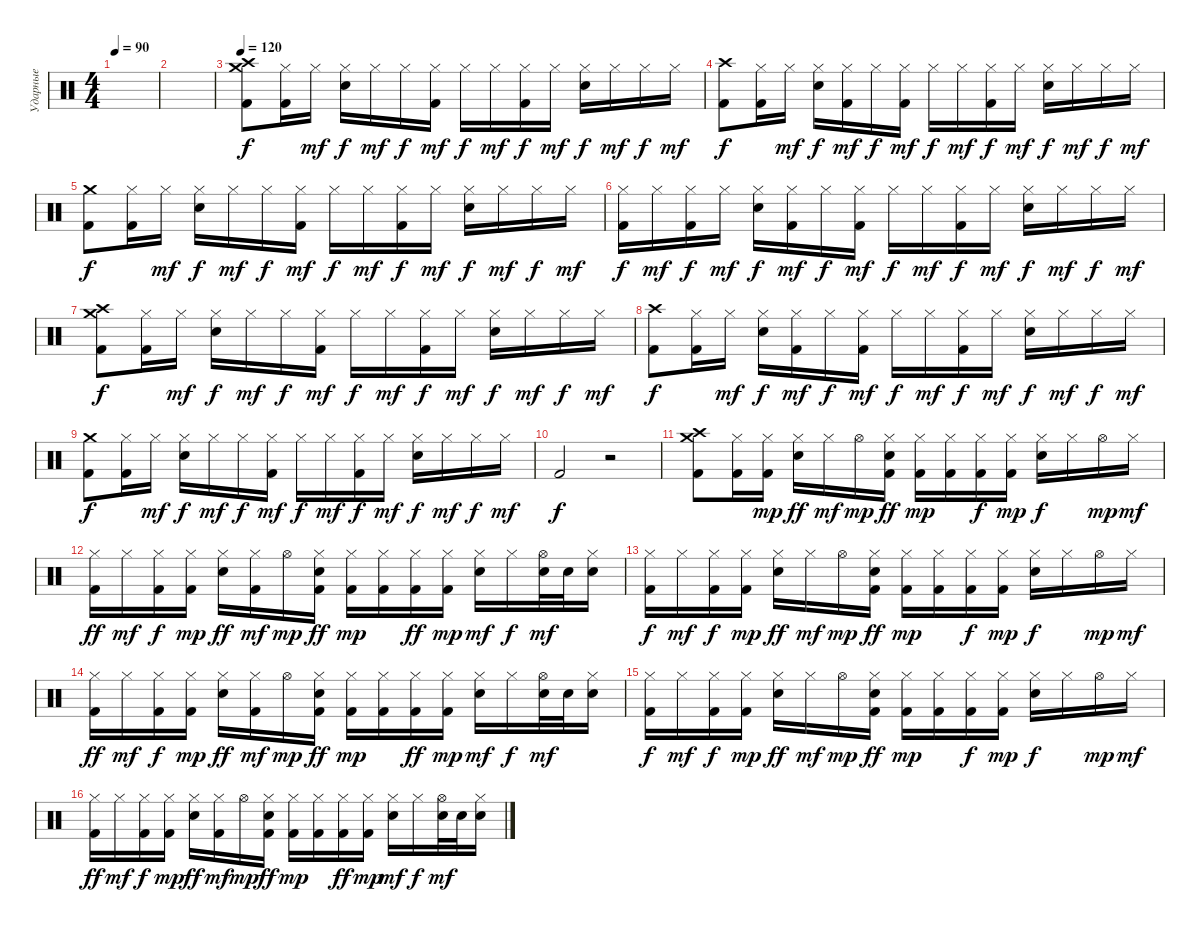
\track ("Ударные" "Ударные") {instrument percussion}
\staff {score}
\articulation defaults
\ts (4 4)
\tempo 90
\clef neutral
\ks c
|
|
\tempo 120
("Crash high (hit)" "Crash medium (hit)" "Kick (hit) 2").8{dy f} ("Hi-Hat (closed)" "Kick (hit) 2").16 "Hi-Hat (closed)".16{dy mf} ("Hi-Hat (closed)" "Snare (hit) 2").16{dy f} "Hi-Hat (closed)".16{dy mf} "Hi-Hat (closed)".16{dy f} ("Hi-Hat (closed)" "Kick (hit) 2").16{dy mf} "Hi-Hat (closed)".16{dy f} "Hi-Hat (closed)".16{dy mf} ("Hi-Hat (closed)" "Kick (hit) 2").16{dy f} "Hi-Hat (closed)".16{dy mf} ("Hi-Hat (closed)" "Snare (hit) 2").16{dy f} "Hi-Hat (closed)".16{dy mf} "Hi-Hat (closed)".16{dy f} "Hi-Hat (closed)".16{dy mf} |
("Crash high (hit)" "Kick (hit) 2").8{dy f} ("Hi-Hat (closed)" "Kick (hit) 2").16 "Hi-Hat (closed)".16{dy mf} ("Hi-Hat (closed)" "Snare (hit) 2").16{dy f} ("Hi-Hat (closed)" "Kick (hit) 2").16{dy mf} "Hi-Hat (closed)".16{dy f} ("Hi-Hat (closed)" "Kick (hit) 2").16{dy mf} "Hi-Hat (closed)".16{dy f} "Hi-Hat (closed)".16{dy mf} ("Hi-Hat (closed)" "Kick (hit) 2").16{dy f} "Hi-Hat (closed)".16{dy mf} ("Hi-Hat (closed)" "Snare (hit) 2").16{dy f} "Hi-Hat (closed)".16{dy mf} "Hi-Hat (closed)".16{dy f} "Hi-Hat (closed)".16{dy mf} |
("Crash medium (hit)" "Kick (hit) 2").8{dy f} ("Hi-Hat (closed)" "Kick (hit) 2").16 "Hi-Hat (closed)".16{dy mf} ("Hi-Hat (closed)" "Snare (hit) 2").16{dy f} "Hi-Hat (closed)".16{dy mf} "Hi-Hat (closed)".16{dy f} ("Hi-Hat (closed)" "Kick (hit) 2").16{dy mf} "Hi-Hat (closed)".16{dy f} "Hi-Hat (closed)".16{dy mf} ("Hi-Hat (closed)" "Kick (hit) 2").16{dy f} "Hi-Hat (closed)".16{dy mf} ("Hi-Hat (closed)" "Snare (hit) 2").16{dy f} "Hi-Hat (closed)".16{dy mf} "Hi-Hat (closed)".16{dy f} "Hi-Hat (closed)".16{dy mf} |
("Hi-Hat (closed)" "Kick (hit) 2").16{dy f} "Hi-Hat (closed)".16{dy mf} ("Hi-Hat (closed)" "Kick (hit) 2").16{dy f} "Hi-Hat (closed)".16{dy mf} ("Hi-Hat (closed)" "Snare (hit) 2").16{dy f} ("Hi-Hat (closed)" "Kick (hit) 2").16{dy mf} "Hi-Hat (closed)".16{dy f} ("Hi-Hat (closed)" "Kick (hit) 2").16{dy mf} "Hi-Hat (closed)".16{dy f} "Hi-Hat (closed)".16{dy mf} ("Hi-Hat (closed)" "Kick (hit) 2").16{dy f} "Hi-Hat (closed)".16{dy mf} ("Hi-Hat (closed)" "Snare (hit) 2").16{dy f} "Hi-Hat (closed)".16{dy mf} "Hi-Hat (closed)".16{dy f} "Hi-Hat (closed)".16{dy mf} |
("Crash high (hit)" "Crash medium (hit)" "Kick (hit) 2").8{dy f} ("Hi-Hat (closed)" "Kick (hit) 2").16 "Hi-Hat (closed)".16{dy mf} ("Hi-Hat (closed)" "Snare (hit) 2").16{dy f} "Hi-Hat (closed)".16{dy mf} "Hi-Hat (closed)".16{dy f} ("Hi-Hat (closed)" "Kick (hit) 2").16{dy mf} "Hi-Hat (closed)".16{dy f} "Hi-Hat (closed)".16{dy mf} ("Hi-Hat (closed)" "Kick (hit) 2").16{dy f} "Hi-Hat (closed)".16{dy mf} ("Hi-Hat (closed)" "Snare (hit) 2").16{dy f} "Hi-Hat (closed)".16{dy mf} "Hi-Hat (closed)".16{dy f} "Hi-Hat (closed)".16{dy mf} |
("Crash high (hit)" "Kick (hit) 2").8{dy f} ("Hi-Hat (closed)" "Kick (hit) 2").16 "Hi-Hat (closed)".16{dy mf} ("Hi-Hat (closed)" "Snare (hit) 2").16{dy f} ("Hi-Hat (closed)" "Kick (hit) 2").16{dy mf} "Hi-Hat (closed)".16{dy f} ("Hi-Hat (closed)" "Kick (hit) 2").16{dy mf} "Hi-Hat (closed)".16{dy f} "Hi-Hat (closed)".16{dy mf} ("Hi-Hat (closed)" "Kick (hit) 2").16{dy f} "Hi-Hat (closed)".16{dy mf} ("Hi-Hat (closed)" "Snare (hit) 2").16{dy f} "Hi-Hat (closed)".16{dy mf} "Hi-Hat (closed)".16{dy f} "Hi-Hat (closed)".16{dy mf} |
("Crash medium (hit)" "Kick (hit) 2").8{dy f} ("Hi-Hat (closed)" "Kick (hit) 2").16 "Hi-Hat (closed)".16{dy mf} ("Hi-Hat (closed)" "Snare (hit) 2").16{dy f} "Hi-Hat (closed)".16{dy mf} "Hi-Hat (closed)".16{dy f} ("Hi-Hat (closed)" "Kick (hit) 2").16{dy mf} "Hi-Hat (closed)".16{dy f} "Hi-Hat (closed)".16{dy mf} ("Hi-Hat (closed)" "Kick (hit) 2").16{dy f} "Hi-Hat (closed)".16{dy mf} ("Hi-Hat (closed)" "Snare (hit) 2").16{dy f} "Hi-Hat (closed)".16{dy mf} "Hi-Hat (closed)".16{dy f} "Hi-Hat (closed)".16{dy mf} |
"Kick (hit) 2".2{dy f} r.2 |
("Crash high (hit)" "Crash medium (hit)" "Kick (hit) 2").8 ("Hi-Hat (closed)" "Kick (hit) 2").16 ("Hi-Hat (closed)" "Kick (hit) 2").16{dy mp} ("Hi-Hat (closed)" "Snare (hit) 2").16{dy ff} "Hi-Hat (closed)".16{dy mf} "Hi-Hat (open)".16{dy mp} ("Hi-Hat (closed)" "Snare (hit) 2" "Kick (hit) 2").16{dy ff} ("Hi-Hat (closed)" "Kick (hit) 2").16{dy mp} ("Hi-Hat (closed)" "Kick (hit) 2").16 ("Hi-Hat (closed)" "Kick (hit) 2").16{dy f} ("Hi-Hat (closed)" "Kick (hit) 2").16{dy mp} ("Hi-Hat (closed)" "Snare (hit) 2").16{dy f} "Hi-Hat (closed)".16 "Hi-Hat (open)".16{dy mp} "Hi-Hat (closed)".16{dy mf} |
("Hi-Hat (closed)" "Kick (hit) 2").16{dy ff} "Hi-Hat (closed)".16{dy mf} ("Hi-Hat (closed)" "Kick (hit) 2").16{dy f} ("Hi-Hat (closed)" "Kick (hit) 2").16{dy mp} ("Hi-Hat (closed)" "Snare (hit) 2").16{dy ff} ("Hi-Hat (closed)" "Kick (hit) 2").16{dy mf} "Hi-Hat (open)".16{dy mp} ("Hi-Hat (closed)" "Snare (hit) 2" "Kick (hit) 2").16{dy ff} ("Hi-Hat (closed)" "Kick (hit) 2").16{dy mp} ("Hi-Hat (closed)" "Kick (hit) 2").16 ("Hi-Hat (closed)" "Kick (hit) 2").16{dy ff} ("Hi-Hat (closed)" "Kick (hit) 2").16{dy mp} ("Hi-Hat (closed)" "Snare (hit) 2").16{dy mf} "Hi-Hat (closed)".16{dy f} ("Hi-Hat (open)" "Snare (hit) 2").32{dy mf} "Snare (hit) 2".32 ("Hi-Hat (closed)" "Snare (hit) 2").16 |
("Hi-Hat (closed)" "Kick (hit) 2").16{dy f} "Hi-Hat (closed)".16{dy mf} ("Hi-Hat (closed)" "Kick (hit) 2").16{dy f} ("Hi-Hat (closed)" "Kick (hit) 2").16{dy mp} ("Hi-Hat (closed)" "Snare (hit) 2").16{dy ff} "Hi-Hat (closed)".16{dy mf} "Hi-Hat (open)".16{dy mp} ("Hi-Hat (closed)" "Snare (hit) 2" "Kick (hit) 2").16{dy ff} ("Hi-Hat (closed)" "Kick (hit) 2").16{dy mp} ("Hi-Hat (closed)" "Kick (hit) 2").16 ("Hi-Hat (closed)" "Kick (hit) 2").16{dy f} ("Hi-Hat (closed)" "Kick (hit) 2").16{dy mp} ("Hi-Hat (closed)" "Snare (hit) 2").16{dy f} "Hi-Hat (closed)".16 "Hi-Hat (open)".16{dy mp} "Hi-Hat (closed)".16{dy mf} |
("Hi-Hat (closed)" "Kick (hit) 2").16{dy ff} "Hi-Hat (closed)".16{dy mf} ("Hi-Hat (closed)" "Kick (hit) 2").16{dy f} ("Hi-Hat (closed)" "Kick (hit) 2").16{dy mp} ("Hi-Hat (closed)" "Snare (hit) 2").16{dy ff} ("Hi-Hat (closed)" "Kick (hit) 2").16{dy mf} "Hi-Hat (open)".16{dy mp} ("Hi-Hat (closed)" "Snare (hit) 2" "Kick (hit) 2").16{dy ff} ("Hi-Hat (closed)" "Kick (hit) 2").16{dy mp} ("Hi-Hat (closed)" "Kick (hit) 2").16 ("Hi-Hat (closed)" "Kick (hit) 2").16{dy ff} ("Hi-Hat (closed)" "Kick (hit) 2").16{dy mp} ("Hi-Hat (closed)" "Snare (hit) 2").16{dy mf} "Hi-Hat (closed)".16{dy f} ("Hi-Hat (open)" "Snare (hit) 2").32{dy mf} "Snare (hit) 2".32 ("Hi-Hat (closed)" "Snare (hit) 2").16 |
("Hi-Hat (closed)" "Kick (hit) 2").16{dy f} "Hi-Hat (closed)".16{dy mf} ("Hi-Hat (closed)" "Kick (hit) 2").16{dy f} ("Hi-Hat (closed)" "Kick (hit) 2").16{dy mp} ("Hi-Hat (closed)" "Snare (hit) 2").16{dy ff} "Hi-Hat (closed)".16{dy mf} "Hi-Hat (open)".16{dy mp} ("Hi-Hat (closed)" "Snare (hit) 2" "Kick (hit) 2").16{dy ff} ("Hi-Hat (closed)" "Kick (hit) 2").16{dy mp} ("Hi-Hat (closed)" "Kick (hit) 2").16 ("Hi-Hat (closed)" "Kick (hit) 2").16{dy f} ("Hi-Hat (closed)" "Kick (hit) 2").16{dy mp} ("Hi-Hat (closed)" "Snare (hit) 2").16{dy f} "Hi-Hat (closed)".16 "Hi-Hat (open)".16{dy mp} "Hi-Hat (closed)".16{dy mf} |
("Hi-Hat (closed)" "Kick (hit) 2").16{dy ff} "Hi-Hat (closed)".16{dy mf} ("Hi-Hat (closed)" "Kick (hit) 2").16{dy f} ("Hi-Hat (closed)" "Kick (hit) 2").16{dy mp} ("Hi-Hat (closed)" "Snare (hit) 2").16{dy ff} ("Hi-Hat (closed)" "Kick (hit) 2").16{dy mf} "Hi-Hat (open)".16{dy mp} ("Hi-Hat (closed)" "Snare (hit) 2" "Kick (hit) 2").16{dy ff} ("Hi-Hat (closed)" "Kick (hit) 2").16{dy mp} ("Hi-Hat (closed)" "Kick (hit) 2").16 ("Hi-Hat (closed)" "Kick (hit) 2").16{dy ff} ("Hi-Hat (closed)" "Kick (hit) 2").16{dy mp} ("Hi-Hat (closed)" "Snare (hit) 2").16{dy mf} "Hi-Hat (closed)".16{dy f} ("Hi-Hat (open)" "Snare (hit) 2").32{dy mf} "Snare (hit) 2".32 ("Hi-Hat (closed)" "Snare (hit) 2").16
